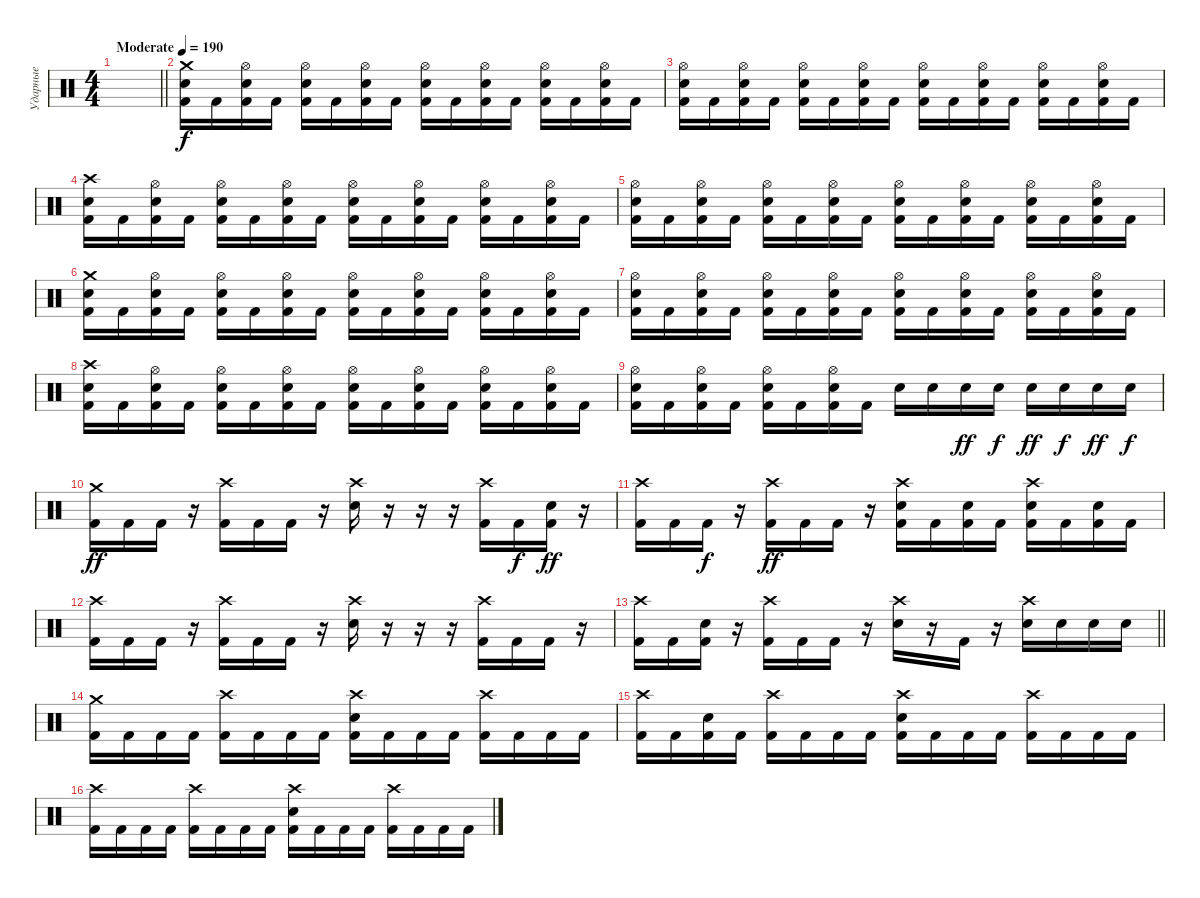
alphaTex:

\track ("Ударные" "Ударные") {instrument percussion}
\staff {score}
\articulation defaults
\ts (4 4)
\tempo (190 "Moderate")
\clef neutral
\barLineRight lightlight
\ks c
|
("Crash medium (hit)" "Electric Snare (hit)" "Kick (hit) 2").16 "Kick (hit) 2".16 ("Hi-Hat (open)" "Electric Snare (hit)" "Kick (hit) 2").16 "Kick (hit) 2".16 ("Hi-Hat (open)" "Electric Snare (hit)" "Kick (hit) 2").16 "Kick (hit) 2".16 ("Hi-Hat (open)" "Electric Snare (hit)" "Kick (hit) 2").16 "Kick (hit) 2".16 ("Hi-Hat (open)" "Electric Snare (hit)" "Kick (hit) 2").16 "Kick (hit) 2".16 ("Hi-Hat (open)" "Electric Snare (hit)" "Kick (hit) 2").16 "Kick (hit) 2".16 ("Hi-Hat (open)" "Electric Snare (hit)" "Kick (hit) 2").16 "Kick (hit) 2".16 ("Hi-Hat (open)" "Electric Snare (hit)" "Kick (hit) 2").16 "Kick (hit) 2".16 |
("Hi-Hat (open)" "Electric Snare (hit)" "Kick (hit) 2").16 "Kick (hit) 2".16 ("Hi-Hat (open)" "Electric Snare (hit)" "Kick (hit) 2").16 "Kick (hit) 2".16 ("Hi-Hat (open)" "Electric Snare (hit)" "Kick (hit) 2").16 "Kick (hit) 2".16 ("Hi-Hat (open)" "Electric Snare (hit)" "Kick (hit) 2").16 "Kick (hit) 2".16 ("Hi-Hat (open)" "Electric Snare (hit)" "Kick (hit) 2").16 "Kick (hit) 2".16 ("Hi-Hat (open)" "Electric Snare (hit)" "Kick (hit) 2").16 "Kick (hit) 2".16 ("Hi-Hat (open)" "Electric Snare (hit)" "Kick (hit) 2").16 "Kick (hit) 2".16 ("Hi-Hat (open)" "Electric Snare (hit)" "Kick (hit) 2").16 "Kick (hit) 2".16 |
("Crash high (hit)" "Electric Snare (hit)" "Kick (hit) 2").16 "Kick (hit) 2".16 ("Hi-Hat (open)" "Electric Snare (hit)" "Kick (hit) 2").16 "Kick (hit) 2".16 ("Hi-Hat (open)" "Electric Snare (hit)" "Kick (hit) 2").16 "Kick (hit) 2".16 ("Hi-Hat (open)" "Electric Snare (hit)" "Kick (hit) 2").16 "Kick (hit) 2".16 ("Hi-Hat (open)" "Electric Snare (hit)" "Kick (hit) 2").16 "Kick (hit) 2".16 ("Hi-Hat (open)" "Electric Snare (hit)" "Kick (hit) 2").16 "Kick (hit) 2".16 ("Hi-Hat (open)" "Electric Snare (hit)" "Kick (hit) 2").16 "Kick (hit) 2".16 ("Hi-Hat (open)" "Electric Snare (hit)" "Kick (hit) 2").16 "Kick (hit) 2".16 |
("Hi-Hat (open)" "Electric Snare (hit)" "Kick (hit) 2").16 "Kick (hit) 2".16 ("Hi-Hat (open)" "Electric Snare (hit)" "Kick (hit) 2").16 "Kick (hit) 2".16 ("Hi-Hat (open)" "Electric Snare (hit)" "Kick (hit) 2").16 "Kick (hit) 2".16 ("Hi-Hat (open)" "Electric Snare (hit)" "Kick (hit) 2").16 "Kick (hit) 2".16 ("Hi-Hat (open)" "Electric Snare (hit)" "Kick (hit) 2").16 "Kick (hit) 2".16 ("Hi-Hat (open)" "Electric Snare (hit)" "Kick (hit) 2").16 "Kick (hit) 2".16 ("Hi-Hat (open)" "Electric Snare (hit)" "Kick (hit) 2").16 "Kick (hit) 2".16 ("Hi-Hat (open)" "Electric Snare (hit)" "Kick (hit) 2").16 "Kick (hit) 2".16 |
("Crash medium (hit)" "Electric Snare (hit)" "Kick (hit) 2").16 "Kick (hit) 2".16 ("Hi-Hat (open)" "Electric Snare (hit)" "Kick (hit) 2").16 "Kick (hit) 2".16 ("Hi-Hat (open)" "Electric Snare (hit)" "Kick (hit) 2").16 "Kick (hit) 2".16 ("Hi-Hat (open)" "Electric Snare (hit)" "Kick (hit) 2").16 "Kick (hit) 2".16 ("Hi-Hat (open)" "Electric Snare (hit)" "Kick (hit) 2").16 "Kick (hit) 2".16 ("Hi-Hat (open)" "Electric Snare (hit)" "Kick (hit) 2").16 "Kick (hit) 2".16 ("Hi-Hat (open)" "Electric Snare (hit)" "Kick (hit) 2").16 "Kick (hit) 2".16 ("Hi-Hat (open)" "Electric Snare (hit)" "Kick (hit) 2").16 "Kick (hit) 2".16 |
("Hi-Hat (open)" "Electric Snare (hit)" "Kick (hit) 2").16 "Kick (hit) 2".16 ("Hi-Hat (open)" "Electric Snare (hit)" "Kick (hit) 2").16 "Kick (hit) 2".16 ("Hi-Hat (open)" "Electric Snare (hit)" "Kick (hit) 2").16 "Kick (hit) 2".16 ("Hi-Hat (open)" "Electric Snare (hit)" "Kick (hit) 2").16 "Kick (hit) 2".16 ("Hi-Hat (open)" "Electric Snare (hit)" "Kick (hit) 2").16 "Kick (hit) 2".16 ("Hi-Hat (open)" "Electric Snare (hit)" "Kick (hit) 2").16 "Kick (hit) 2".16 ("Hi-Hat (open)" "Electric Snare (hit)" "Kick (hit) 2").16 "Kick (hit) 2".16 ("Hi-Hat (open)" "Electric Snare (hit)" "Kick (hit) 2").16 "Kick (hit) 2".16 |
("Crash high (hit)" "Electric Snare (hit)" "Kick (hit) 2").16 "Kick (hit) 2".16 ("Hi-Hat (open)" "Electric Snare (hit)" "Kick (hit) 2").16 "Kick (hit) 2".16 ("Hi-Hat (open)" "Electric Snare (hit)" "Kick (hit) 2").16 "Kick (hit) 2".16 ("Hi-Hat (open)" "Electric Snare (hit)" "Kick (hit) 2").16 "Kick (hit) 2".16 ("Hi-Hat (open)" "Electric Snare (hit)" "Kick (hit) 2").16 "Kick (hit) 2".16 ("Hi-Hat (open)" "Electric Snare (hit)" "Kick (hit) 2").16 "Kick (hit) 2".16 ("Hi-Hat (open)" "Electric Snare (hit)" "Kick (hit) 2").16 "Kick (hit) 2".16 ("Hi-Hat (open)" "Electric Snare (hit)" "Kick (hit) 2").16 "Kick (hit) 2".16 |
("Hi-Hat (open)" "Electric Snare (hit)" "Kick (hit) 2").16 "Kick (hit) 2".16 ("Hi-Hat (open)" "Electric Snare (hit)" "Kick (hit) 2").16 "Kick (hit) 2".16 ("Hi-Hat (open)" "Electric Snare (hit)" "Kick (hit) 2").16 "Kick (hit) 2".16 ("Hi-Hat (open)" "Electric Snare (hit)" "Kick (hit) 2").16 "Kick (hit) 2".16 "Electric Snare (hit)".16 "Electric Snare (hit)".16{dy f} "Electric Snare (hit)".16{dy ff} "Electric Snare (hit)".16{dy f} "Electric Snare (hit)".16{dy ff} "Electric Snare (hit)".16{dy f} "Electric Snare (hit)".16{dy ff} "Electric Snare (hit)".16{dy f} |
("Crash medium (hit)" "Kick (hit) 2").16{dy ff} "Kick (hit) 2".16 "Kick (hit) 2".16 r.16 ("Crash high (hit)" "Kick (hit) 2").16 "Kick (hit) 2".16 "Kick (hit) 2".16 r.16 ("Crash high (hit)" "Electric Snare (hit)").16 r.16 r.16 r.16 ("Crash high (hit)" "Kick (hit) 2").16 "Kick (hit) 2".16{dy f} ("Electric Snare (hit)" "Kick (hit) 2").16{dy ff} r.16 |
("Crash high (hit)" "Kick (hit) 2").16 "Kick (hit) 2".16 "Kick (hit) 2".16{dy f} r.16 ("Crash high (hit)" "Kick (hit) 2").16{dy ff} "Kick (hit) 2".16 "Kick (hit) 2".16 r.16 ("Crash high (hit)" "Electric Snare (hit)" "Kick (hit) 2").16 "Kick (hit) 2".16 ("Electric Snare (hit)" "Kick (hit) 2").16 "Kick (hit) 2".16 ("Crash high (hit)" "Electric Snare (hit)" "Kick (hit) 2").16 "Kick (hit) 2".16 ("Electric Snare (hit)" "Kick (hit) 2").16 "Kick (hit) 2".16 |
("Crash high (hit)" "Kick (hit) 2").16 "Kick (hit) 2".16 "Kick (hit) 2".16 r.16 ("Crash high (hit)" "Kick (hit) 2").16 "Kick (hit) 2".16 "Kick (hit) 2".16 r.16 ("Crash high (hit)" "Electric Snare (hit)").16 r.16 r.16 r.16 ("Crash high (hit)" "Kick (hit) 2").16 "Kick (hit) 2".16 "Kick (hit) 2".16 r.16 |
\barLineRight lightlight
("Crash high (hit)" "Kick (hit) 2").16 "Kick (hit) 2".16 ("Electric Snare (hit)" "Kick (hit) 2").16 r.16 ("Crash high (hit)" "Kick (hit) 2").16 "Kick (hit) 2".16 "Kick (hit) 2".16 r.16 ("Crash high (hit)" "Electric Snare (hit)").16 r.16 "Kick (hit) 2".16 r.16 ("Crash high (hit)" "Electric Snare (hit)").16 "Electric Snare (hit)".16 "Electric Snare (hit)".16 "Electric Snare (hit)".16 |
("Crash medium (hit)" "Kick (hit) 2").16 "Kick (hit) 2".16 "Kick (hit) 2".16 "Kick (hit) 2".16 ("Crash high (hit)" "Kick (hit) 2").16 "Kick (hit) 2".16 "Kick (hit) 2".16 "Kick (hit) 2".16 ("Crash high (hit)" "Electric Snare (hit)" "Kick (hit) 2").16 "Kick (hit) 2".16 "Kick (hit) 2".16 "Kick (hit) 2".16 ("Crash high (hit)" "Kick (hit) 2").16 "Kick (hit) 2".16 "Kick (hit) 2".16 "Kick (hit) 2".16 |
("Crash high (hit)" "Kick (hit) 2").16 "Kick (hit) 2".16 ("Electric Snare (hit)" "Kick (hit) 2").16 "Kick (hit) 2".16 ("Crash high (hit)" "Kick (hit) 2").16 "Kick (hit) 2".16 "Kick (hit) 2".16 "Kick (hit) 2".16 ("Crash high (hit)" "Electric Snare (hit)" "Kick (hit) 2").16 "Kick (hit) 2".16 "Kick (hit) 2".16 "Kick (hit) 2".16 ("Crash high (hit)" "Kick (hit) 2").16 "Kick (hit) 2".16 "Kick (hit) 2".16 "Kick (hit) 2".16 |
("Crash high (hit)" "Kick (hit) 2").16 "Kick (hit) 2".16 "Kick (hit) 2".16 "Kick (hit) 2".16 ("Crash high (hit)" "Kick (hit) 2").16 "Kick (hit) 2".16 "Kick (hit) 2".16 "Kick (hit) 2".16 ("Crash high (hit)" "Electric Snare (hit)" "Kick (hit) 2").16 "Kick (hit) 2".16 "Kick (hit) 2".16 "Kick (hit) 2".16 ("Crash high (hit)" "Kick (hit) 2").16 "Kick (hit) 2".16 "Kick (hit) 2".16 "Kick (hit) 2".16
